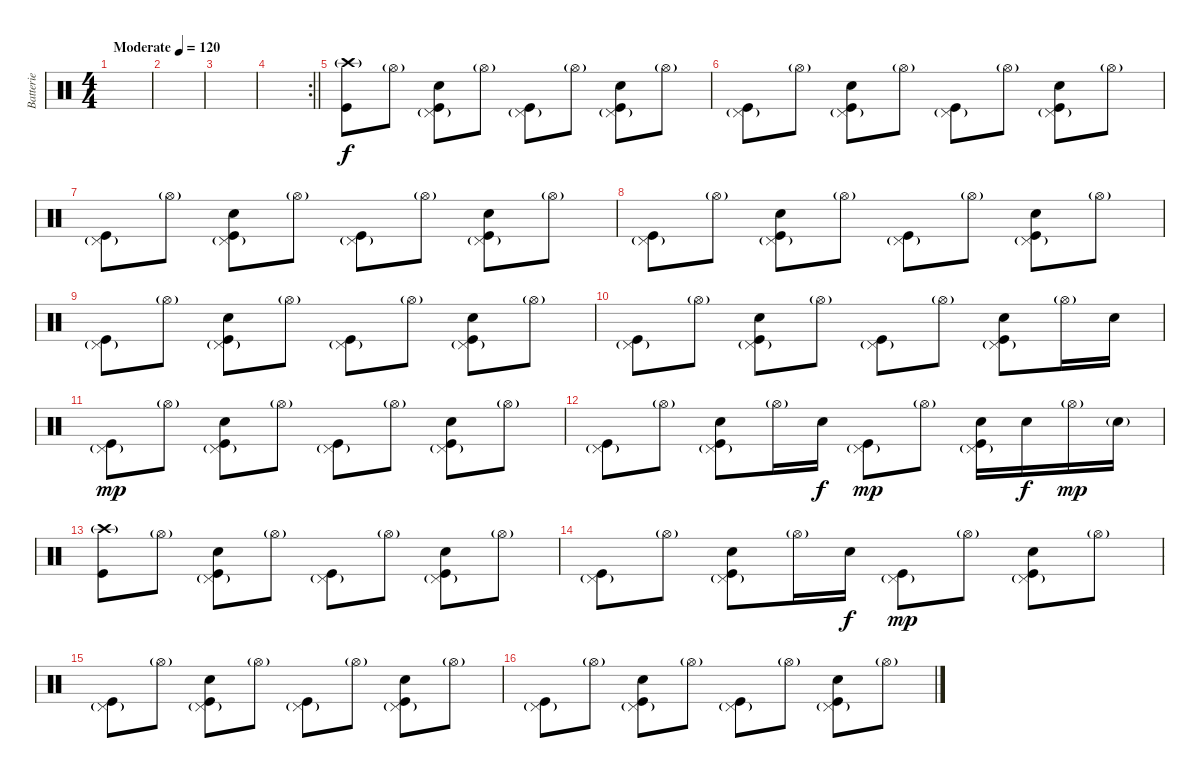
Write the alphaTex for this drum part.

\track ("Batterie" "Batterie") {instrument percussion}
\staff {score}
\articulation defaults
\ts (4 4)
\tempo (120 "Moderate")
\clef neutral
\ks c
|
|
|
\rc 2
\barLineRight lightlight
|
("Crash high (hit)"{g} "Kick (hit)").8 "Hi-Hat (open)"{g}.8 ("Pedal Hi-Hat (hit)"{g} "Electric Snare (hit)" "Kick (hit)").8 "Hi-Hat (open)"{g}.8 ("Pedal Hi-Hat (hit)"{g} "Kick (hit)").8 "Hi-Hat (open)"{g}.8 ("Pedal Hi-Hat (hit)"{g} "Electric Snare (hit)" "Kick (hit)").8 "Hi-Hat (open)"{g}.8 |
("Pedal Hi-Hat (hit)"{g} "Kick (hit)").8 "Hi-Hat (open)"{g}.8 ("Pedal Hi-Hat (hit)"{g} "Electric Snare (hit)" "Kick (hit)").8 "Hi-Hat (open)"{g}.8 ("Pedal Hi-Hat (hit)"{g} "Kick (hit)").8 "Hi-Hat (open)"{g}.8 ("Pedal Hi-Hat (hit)"{g} "Electric Snare (hit)" "Kick (hit)").8 "Hi-Hat (open)"{g}.8 |
("Pedal Hi-Hat (hit)"{g} "Kick (hit)").8 "Hi-Hat (open)"{g}.8 ("Pedal Hi-Hat (hit)"{g} "Electric Snare (hit)" "Kick (hit)").8 "Hi-Hat (open)"{g}.8 ("Pedal Hi-Hat (hit)"{g} "Kick (hit)").8 "Hi-Hat (open)"{g}.8 ("Pedal Hi-Hat (hit)"{g} "Electric Snare (hit)" "Kick (hit)").8 "Hi-Hat (open)"{g}.8 |
("Pedal Hi-Hat (hit)"{g} "Kick (hit)").8 "Hi-Hat (open)"{g}.8 ("Pedal Hi-Hat (hit)"{g} "Electric Snare (hit)" "Kick (hit)").8 "Hi-Hat (open)"{g}.8 ("Pedal Hi-Hat (hit)"{g} "Kick (hit)").8 "Hi-Hat (open)"{g}.8 ("Pedal Hi-Hat (hit)"{g} "Electric Snare (hit)" "Kick (hit)").8 "Hi-Hat (open)"{g}.8 |
("Pedal Hi-Hat (hit)"{g} "Kick (hit)").8 "Hi-Hat (open)"{g}.8 ("Pedal Hi-Hat (hit)"{g} "Electric Snare (hit)" "Kick (hit)").8 "Hi-Hat (open)"{g}.8 ("Pedal Hi-Hat (hit)"{g} "Kick (hit)").8 "Hi-Hat (open)"{g}.8 ("Pedal Hi-Hat (hit)"{g} "Electric Snare (hit)" "Kick (hit)").8 "Hi-Hat (open)"{g}.8 |
("Pedal Hi-Hat (hit)"{g} "Kick (hit)").8 "Hi-Hat (open)"{g}.8 ("Pedal Hi-Hat (hit)"{g} "Electric Snare (hit)" "Kick (hit)").8 "Hi-Hat (open)"{g}.8 ("Pedal Hi-Hat (hit)"{g} "Kick (hit)").8 "Hi-Hat (open)"{g}.8 ("Pedal Hi-Hat (hit)"{g} "Electric Snare (hit)" "Kick (hit)").8 "Hi-Hat (open)"{g}.16 "Electric Snare (hit)".16{dy f} |
("Pedal Hi-Hat (hit)"{g} "Kick (hit)").8{dy mp} "Hi-Hat (open)"{g}.8 ("Pedal Hi-Hat (hit)"{g} "Electric Snare (hit)" "Kick (hit)").8 "Hi-Hat (open)"{g}.8 ("Pedal Hi-Hat (hit)"{g} "Kick (hit)").8 "Hi-Hat (open)"{g}.8 ("Pedal Hi-Hat (hit)"{g} "Electric Snare (hit)" "Kick (hit)").8 "Hi-Hat (open)"{g}.8 |
("Pedal Hi-Hat (hit)"{g} "Kick (hit)").8 "Hi-Hat (open)"{g}.8 ("Pedal Hi-Hat (hit)"{g} "Electric Snare (hit)" "Kick (hit)").8 "Hi-Hat (open)"{g}.16 "Electric Snare (hit)".16{dy f} ("Pedal Hi-Hat (hit)"{g} "Kick (hit)").8{dy mp} "Hi-Hat (open)"{g}.8 ("Pedal Hi-Hat (hit)"{g} "Electric Snare (hit)" "Kick (hit)").16 "Electric Snare (hit)".16{dy f} "Hi-Hat (open)"{g}.16{dy mp} "Electric Snare (hit)"{g}.16 |
("Crash high (hit)"{g} "Kick (hit)").8 "Hi-Hat (open)"{g}.8 ("Pedal Hi-Hat (hit)"{g} "Electric Snare (hit)" "Kick (hit)").8 "Hi-Hat (open)"{g}.8 ("Pedal Hi-Hat (hit)"{g} "Kick (hit)").8 "Hi-Hat (open)"{g}.8 ("Pedal Hi-Hat (hit)"{g} "Electric Snare (hit)" "Kick (hit)").8 "Hi-Hat (open)"{g}.8 |
("Pedal Hi-Hat (hit)"{g} "Kick (hit)").8 "Hi-Hat (open)"{g}.8 ("Pedal Hi-Hat (hit)"{g} "Electric Snare (hit)" "Kick (hit)").8 "Hi-Hat (open)"{g}.16 "Electric Snare (hit)".16{dy f} ("Pedal Hi-Hat (hit)"{g} "Kick (hit)").8{dy mp} "Hi-Hat (open)"{g}.8 ("Pedal Hi-Hat (hit)"{g} "Electric Snare (hit)" "Kick (hit)").8 "Hi-Hat (open)"{g}.8 |
("Pedal Hi-Hat (hit)"{g} "Kick (hit)").8 "Hi-Hat (open)"{g}.8 ("Pedal Hi-Hat (hit)"{g} "Electric Snare (hit)" "Kick (hit)").8 "Hi-Hat (open)"{g}.8 ("Pedal Hi-Hat (hit)"{g} "Kick (hit)").8 "Hi-Hat (open)"{g}.8 ("Pedal Hi-Hat (hit)"{g} "Electric Snare (hit)" "Kick (hit)").8 "Hi-Hat (open)"{g}.8 |
("Pedal Hi-Hat (hit)"{g} "Kick (hit)").8 "Hi-Hat (open)"{g}.8 ("Pedal Hi-Hat (hit)"{g} "Electric Snare (hit)" "Kick (hit)").8 "Hi-Hat (open)"{g}.8 ("Pedal Hi-Hat (hit)"{g} "Kick (hit)").8 "Hi-Hat (open)"{g}.8 ("Pedal Hi-Hat (hit)"{g} "Electric Snare (hit)" "Kick (hit)").8 "Hi-Hat (open)"{g}.8
